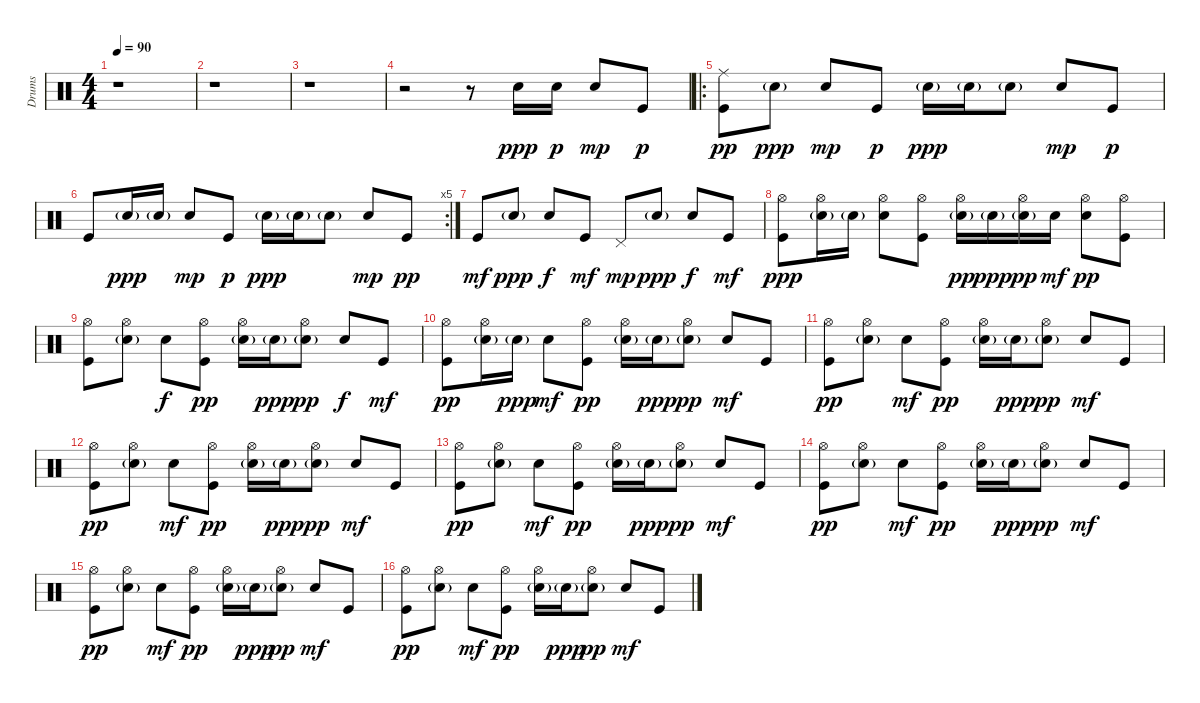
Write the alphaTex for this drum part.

\track ("Drums" "Drums") {instrument percussion}
\staff {score}
\articulation defaults
\ts (4 4)
\tempo 90
\clef neutral
\ks c
r.1{dy ppp} |
r.1 |
r.1 |
r.2 r.8 "Snare (hit) 2".16 "Snare (hit) 2".16{dy p} "Snare (hit) 2".8{dy mp} "Kick (hit)".8{dy p} |
\ro
("Kick (hit)" "Ride (middle)").8{dy pp} "Snare (hit) 2"{g}.8{dy ppp} "Snare (hit) 2".8{dy mp} "Kick (hit)".8{dy p} "Snare (hit) 2"{g}.16{dy ppp} "Snare (hit) 2"{g}.16 "Snare (hit) 2"{g}.8 "Snare (hit) 2".8{dy mp} "Kick (hit)".8{dy p} |
\rc 5 "Kick (hit)".8 "Snare (hit) 2"{g}.16{dy ppp} "Snare (hit) 2"{g}.16 "Snare (hit) 2".8{dy mp} "Kick (hit)".8{dy p} "Snare (hit) 2"{g}.16{dy ppp} "Snare (hit) 2"{g}.16 "Snare (hit) 2"{g}.8 "Snare (hit) 2".8{dy mp} "Kick (hit)".8{dy pp}
|
"Kick (hit)".8{dy mf} "Snare (hit) 2"{g}.8{dy ppp} "Snare (hit) 2".8{dy f} "Kick (hit)".8{dy mf} "Pedal Hi-Hat (hit)".8{dy mp} "Snare (hit) 2"{g}.8{dy ppp} "Snare (hit) 2".8{dy f} "Kick (hit)".8{dy mf} |
("Kick (hit)" "Hi-Hat (open)").8{dy ppp} ("Snare (hit) 2"{g} "Hi-Hat (open)").16 "Snare (hit) 2"{g}.16 ("Snare (hit) 2" "Hi-Hat (open)").8 ("Kick (hit)" "Hi-Hat (open)").8 ("Snare (hit) 2"{g} "Hi-Hat (open)").16{dy pp} "Snare (hit) 2"{g}.16{dy ppp} ("Snare (hit) 2"{g} "Hi-Hat (open)").16{dy pp} "Snare (hit) 2".16{dy mf} ("Snare (hit) 2" "Hi-Hat (open)").8{dy pp} ("Kick (hit)" "Hi-Hat (open)").8 |
("Kick (hit)" "Hi-Hat (open)").8 ("Snare (hit) 2"{g} "Hi-Hat (open)").8 "Snare (hit) 2".8{dy f} ("Kick (hit)" "Hi-Hat (open)").8{dy pp} ("Snare (hit) 2"{g} "Hi-Hat (open)").16 "Snare (hit) 2"{g}.16{dy ppp} ("Snare (hit) 2"{g} "Hi-Hat (open)").8{dy pp} "Snare (hit) 2".8{dy f} "Kick (hit)".8{dy mf} |
("Kick (hit)" "Hi-Hat (open)").8{dy pp} ("Snare (hit) 2"{g} "Hi-Hat (open)").16 "Snare (hit) 2"{g}.16{dy ppp} "Snare (hit) 2".8{dy mf} ("Kick (hit)" "Hi-Hat (open)").8{dy pp} ("Snare (hit) 2"{g} "Hi-Hat (open)").16 "Snare (hit) 2"{g}.16{dy ppp} ("Snare (hit) 2"{g} "Hi-Hat (open)").8{dy pp} "Snare (hit) 2".8{dy mf} "Kick (hit)".8 |
("Kick (hit)" "Hi-Hat (open)").8{dy pp} ("Snare (hit) 2"{g} "Hi-Hat (open)").8 "Snare (hit) 2".8{dy mf} ("Kick (hit)" "Hi-Hat (open)").8{dy pp} ("Snare (hit) 2"{g} "Hi-Hat (open)").16 "Snare (hit) 2"{g}.16{dy ppp} ("Snare (hit) 2"{g} "Hi-Hat (open)").8{dy pp} "Snare (hit) 2".8{dy mf} "Kick (hit)".8 |
("Kick (hit)" "Hi-Hat (open)").8{dy pp} ("Snare (hit) 2"{g} "Hi-Hat (open)").8 "Snare (hit) 2".8{dy mf} ("Kick (hit)" "Hi-Hat (open)").8{dy pp} ("Snare (hit) 2"{g} "Hi-Hat (open)").16 "Snare (hit) 2"{g}.16{dy ppp} ("Snare (hit) 2"{g} "Hi-Hat (open)").8{dy pp} "Snare (hit) 2".8{dy mf} "Kick (hit)".8 |
("Kick (hit)" "Hi-Hat (open)").8{dy pp} ("Snare (hit) 2"{g} "Hi-Hat (open)").8 "Snare (hit) 2".8{dy mf} ("Kick (hit)" "Hi-Hat (open)").8{dy pp} ("Snare (hit) 2"{g} "Hi-Hat (open)").16 "Snare (hit) 2"{g}.16{dy ppp} ("Snare (hit) 2"{g} "Hi-Hat (open)").8{dy pp} "Snare (hit) 2".8{dy mf} "Kick (hit)".8 |
("Kick (hit)" "Hi-Hat (open)").8{dy pp} ("Snare (hit) 2"{g} "Hi-Hat (open)").8 "Snare (hit) 2".8{dy mf} ("Kick (hit)" "Hi-Hat (open)").8{dy pp} ("Snare (hit) 2"{g} "Hi-Hat (open)").16 "Snare (hit) 2"{g}.16{dy ppp} ("Snare (hit) 2"{g} "Hi-Hat (open)").8{dy pp} "Snare (hit) 2".8{dy mf} "Kick (hit)".8 |
("Kick (hit)" "Hi-Hat (open)").8{dy pp} ("Snare (hit) 2"{g} "Hi-Hat (open)").8 "Snare (hit) 2".8{dy mf} ("Kick (hit)" "Hi-Hat (open)").8{dy pp} ("Snare (hit) 2"{g} "Hi-Hat (open)").16 "Snare (hit) 2"{g}.16{dy ppp} ("Snare (hit) 2"{g} "Hi-Hat (open)").8{dy pp} "Snare (hit) 2".8{dy mf} "Kick (hit)".8 |
("Kick (hit)" "Hi-Hat (open)").8{dy pp} ("Snare (hit) 2"{g} "Hi-Hat (open)").8 "Snare (hit) 2".8{dy mf} ("Kick (hit)" "Hi-Hat (open)").8{dy pp} ("Snare (hit) 2"{g} "Hi-Hat (open)").16 "Snare (hit) 2"{g}.16{dy ppp} ("Snare (hit) 2"{g} "Hi-Hat (open)").8{dy pp} "Snare (hit) 2".8{dy mf} "Kick (hit)".8
